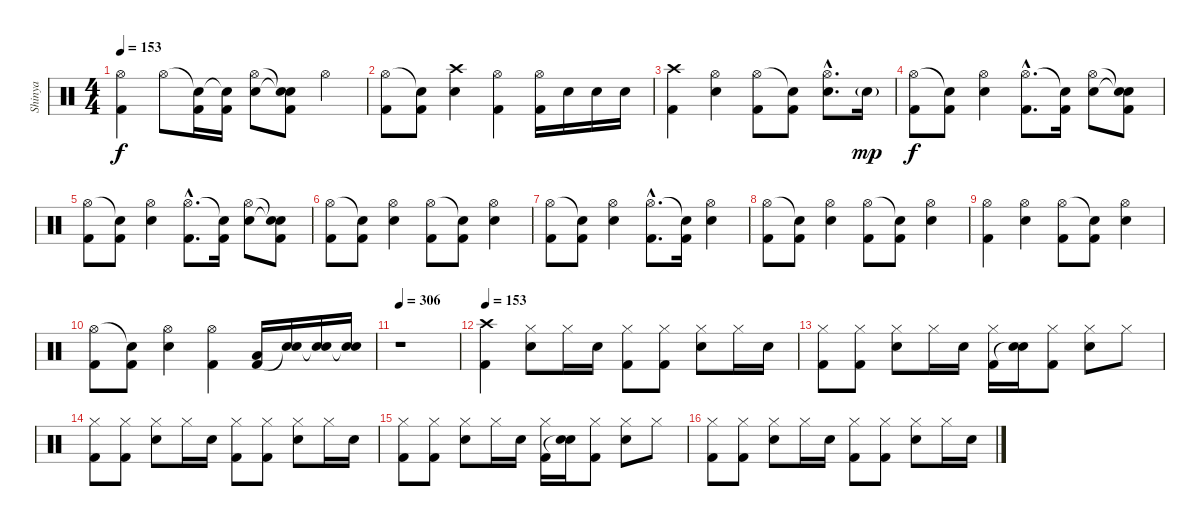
\track ("Shinya" "Shinya") {instrument percussion}
\staff {score}
\articulation defaults
\ts (4 4)
\tempo 153
\clef neutral
\ks c
("Hi-Hat (open)" "Kick (hit) 2").4{dy f} "Hi-Hat (open)".8 ("Snare (hit)"{t} "Kick (hit) 2").16 ("Snare (hit)"{t} "Kick (hit) 2").16 ("Hi-Hat (open)" "Electric Snare (hit)").8 ("Snare (hit)"{t} "Snare (hit)"{t} "Kick (hit) 2").8 "Hi-Hat (open)".4 |
("Hi-Hat (open)" "Kick (hit) 2").8 ("Snare (hit)"{t} "Kick (hit) 2").8 ("Crash high (hit)" "Electric Snare (hit)").4 ("Hi-Hat (open)" "Kick (hit) 2").4 ("Hi-Hat (open)" "Kick (hit) 2").16 "Electric Snare (hit)".16 "Electric Snare (hit)".16 "Electric Snare (hit)".16 |
("Crash high (hit)" "Kick (hit) 2").4 ("Hi-Hat (open)" "Electric Snare (hit)").4 ("Hi-Hat (open)" "Kick (hit) 2").8 ("Snare (hit)"{t} "Kick (hit) 2").8 ("Hi-Hat (open)"{hac} "Electric Snare (hit)"{hac}).8{d} "Electric Snare (hit)"{g}.16{dy mp} |
("Hi-Hat (open)" "Kick (hit) 2").8{dy f} ("Snare (hit)"{t} "Kick (hit) 2").8 ("Hi-Hat (open)" "Electric Snare (hit)").4 ("Hi-Hat (open)"{hac} "Kick (hit) 2"{hac}).8{d} ("Snare (hit)"{t} "Kick (hit) 2").16 ("Hi-Hat (open)" "Electric Snare (hit)").8 ("Snare (hit)"{t} "Snare (hit)"{t} "Kick (hit) 2").8 |
("Hi-Hat (open)" "Kick (hit) 2").8 ("Snare (hit)"{t} "Kick (hit) 2").8 ("Hi-Hat (open)" "Electric Snare (hit)").4 ("Hi-Hat (open)"{hac} "Kick (hit) 2"{hac}).8{d} ("Snare (hit)"{t} "Kick (hit) 2").16 ("Hi-Hat (open)" "Electric Snare (hit)").8 ("Snare (hit)"{t} "Snare (hit)"{t} "Kick (hit) 2").8 |
("Hi-Hat (open)" "Kick (hit) 2").8 ("Snare (hit)"{t} "Kick (hit) 2").8 ("Hi-Hat (open)" "Electric Snare (hit)").4 ("Hi-Hat (open)" "Kick (hit) 2").8 ("Snare (hit)"{t} "Kick (hit) 2").8 ("Hi-Hat (open)" "Electric Snare (hit)").4 |
("Hi-Hat (open)" "Kick (hit) 2").8 ("Snare (hit)"{t} "Kick (hit) 2").8 ("Hi-Hat (open)" "Electric Snare (hit)").4 ("Hi-Hat (open)"{hac} "Kick (hit) 2"{hac}).8{d} ("Snare (hit)"{t} "Kick (hit) 2").16 ("Hi-Hat (open)" "Electric Snare (hit)").4 |
("Hi-Hat (open)" "Kick (hit) 2").8 ("Snare (hit)"{t} "Kick (hit) 2").8 ("Hi-Hat (open)" "Electric Snare (hit)").4 ("Hi-Hat (open)" "Kick (hit) 2").8 ("Snare (hit)"{t} "Kick (hit) 2").8 ("Hi-Hat (open)" "Electric Snare (hit)").4 |
("Hi-Hat (open)" "Kick (hit) 2").4 ("Hi-Hat (open)" "Electric Snare (hit)").4 ("Hi-Hat (open)" "Kick (hit) 2").8 ("Snare (hit)"{t} "Kick (hit) 2").8 ("Hi-Hat (open)" "Electric Snare (hit)").4 |
("Hi-Hat (open)" "Kick (hit) 2").8 ("Snare (hit)"{t} "Kick (hit) 2").8 ("Hi-Hat (open)" "Electric Snare (hit)").4 ("Hi-Hat (open)" "Kick (hit) 2").4 ("Low Floor Tom (hit)" "Kick (hit) 2").16 ("Electric Snare (hit)" "Snare (hit)"{t}).16 ("Electric Snare (hit)" "Snare (hit)"{t}).16 ("Electric Snare (hit)" "Snare (hit)"{t}).16 |
\tempo 306
r.1 |
\tempo 153
("Kick (hit) 2" "Crash high (hit)").4 ("Hi-Hat (closed)" "Electric Snare (hit)").8 "Hi-Hat (closed)".16 "Electric Snare (hit)".16 ("Kick (hit) 2" "Hi-Hat (closed)").8 ("Kick (hit) 2" "Hi-Hat (closed)").8 ("Electric Snare (hit)" "Hi-Hat (closed)").8 "Hi-Hat (closed)".16 "Electric Snare (hit)".16 |
("Hi-Hat (closed)" "Kick (hit) 2").8 ("Hi-Hat (closed)" "Kick (hit) 2").8 ("Hi-Hat (closed)" "Electric Snare (hit)").8 "Hi-Hat (closed)".16 "Electric Snare (hit)".16 ("Hi-Hat (closed)" "Kick (hit) 2").16 ("Electric Snare (hit)" "Snare (hit)"{t}).16 ("Hi-Hat (closed)" "Kick (hit) 2").8 ("Hi-Hat (closed)" "Electric Snare (hit)").8 "Hi-Hat (closed)".8 |
("Hi-Hat (closed)" "Kick (hit) 2").8 ("Hi-Hat (closed)" "Kick (hit) 2").8 ("Hi-Hat (closed)" "Electric Snare (hit)").8 "Hi-Hat (closed)".16 "Electric Snare (hit)".16 ("Hi-Hat (closed)" "Kick (hit) 2").8 ("Hi-Hat (closed)" "Kick (hit) 2").8 ("Hi-Hat (closed)" "Electric Snare (hit)").8 "Hi-Hat (closed)".16 "Electric Snare (hit)".16 |
("Hi-Hat (closed)" "Kick (hit) 2").8 ("Hi-Hat (closed)" "Kick (hit) 2").8 ("Hi-Hat (closed)" "Electric Snare (hit)").8 "Hi-Hat (closed)".16 "Electric Snare (hit)".16 ("Hi-Hat (closed)" "Kick (hit) 2").16 ("Electric Snare (hit)" "Snare (hit)"{t}).16 ("Hi-Hat (closed)" "Kick (hit) 2").8 ("Hi-Hat (closed)" "Electric Snare (hit)").8 "Hi-Hat (closed)".8 |
("Hi-Hat (closed)" "Kick (hit) 2").8 ("Hi-Hat (closed)" "Kick (hit) 2").8 ("Hi-Hat (closed)" "Electric Snare (hit)").8 "Hi-Hat (closed)".16 "Electric Snare (hit)".16 ("Hi-Hat (closed)" "Kick (hit) 2").8 ("Hi-Hat (closed)" "Kick (hit) 2").8 ("Hi-Hat (closed)" "Electric Snare (hit)").8 "Hi-Hat (closed)".16 "Electric Snare (hit)".16
